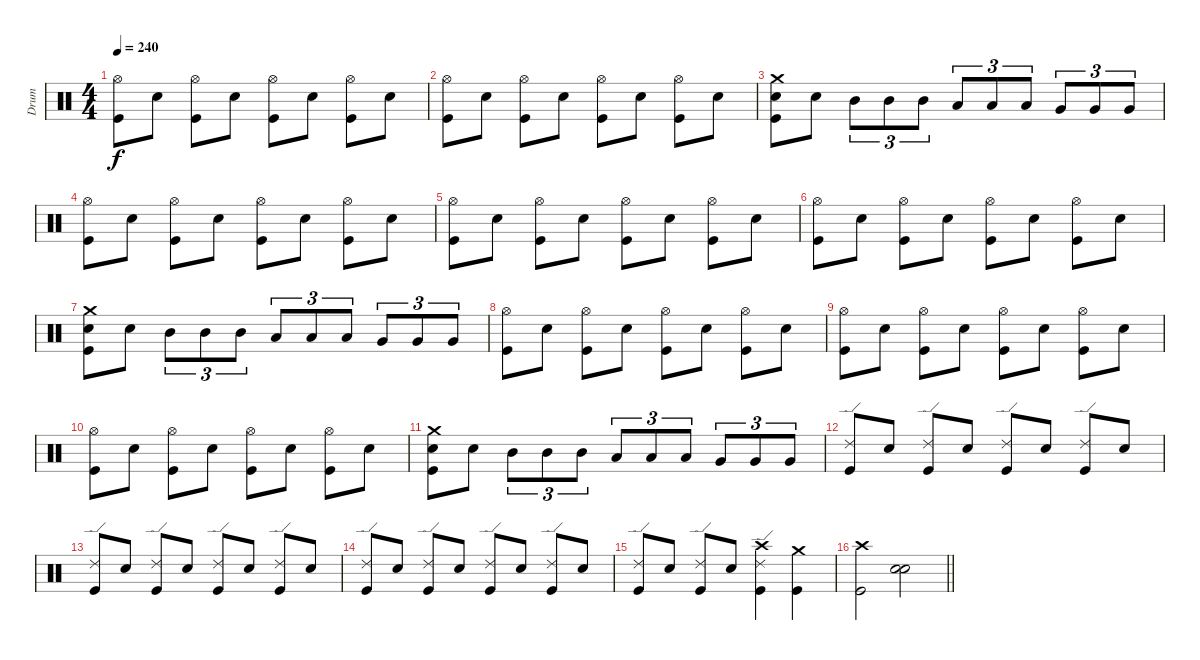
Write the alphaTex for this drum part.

\track ("Drum" "Drum") {instrument percussion}
\staff {score}
\articulation defaults
\ts (4 4)
\tempo 240
\clef neutral
\ks c
("Hi-Hat (open)" "Kick (hit)").8{dy f} "Snare (hit) 2".8 ("Hi-Hat (open)" "Kick (hit)").8 "Snare (hit) 2".8 ("Hi-Hat (open)" "Kick (hit)").8 "Snare (hit) 2".8 ("Hi-Hat (open)" "Kick (hit)").8 "Snare (hit) 2".8 |
("Hi-Hat (open)" "Kick (hit)").8 "Snare (hit) 2".8 ("Hi-Hat (open)" "Kick (hit)").8 "Snare (hit) 2".8 ("Hi-Hat (open)" "Kick (hit)").8 "Snare (hit) 2".8 ("Hi-Hat (open)" "Kick (hit)").8 "Snare (hit) 2".8 |
("Crash medium (hit)" "Snare (hit) 2" "Kick (hit)").8 "Snare (hit) 2".8 "Mid Tom (hit)".8{tu (3 2)} "Mid Tom (hit)".8{tu (3 2)} "Mid Tom (hit)".8{tu (3 2)} "Low Tom (hit)".8{tu (3 2)} "Low Tom (hit)".8{tu (3 2)} "Low Tom (hit)".8{tu (3 2)} "Very Low Tom (hit)".8{tu (3 2)} "Very Low Tom (hit)".8{tu (3 2)} "Very Low Tom (hit)".8{tu (3 2)} |
("Hi-Hat (open)" "Kick (hit)").8 "Snare (hit) 2".8 ("Hi-Hat (open)" "Kick (hit)").8 "Snare (hit) 2".8 ("Hi-Hat (open)" "Kick (hit)").8 "Snare (hit) 2".8 ("Hi-Hat (open)" "Kick (hit)").8 "Snare (hit) 2".8 |
("Hi-Hat (open)" "Kick (hit)").8 "Snare (hit) 2".8 ("Hi-Hat (open)" "Kick (hit)").8 "Snare (hit) 2".8 ("Hi-Hat (open)" "Kick (hit)").8 "Snare (hit) 2".8 ("Hi-Hat (open)" "Kick (hit)").8 "Snare (hit) 2".8 |
("Hi-Hat (open)" "Kick (hit)").8 "Snare (hit) 2".8 ("Hi-Hat (open)" "Kick (hit)").8 "Snare (hit) 2".8 ("Hi-Hat (open)" "Kick (hit)").8 "Snare (hit) 2".8 ("Hi-Hat (open)" "Kick (hit)").8 "Snare (hit) 2".8 |
("Crash medium (hit)" "Snare (hit) 2" "Kick (hit)").8 "Snare (hit) 2".8 "Mid Tom (hit)".8{tu (3 2)} "Mid Tom (hit)".8{tu (3 2)} "Mid Tom (hit)".8{tu (3 2)} "Low Tom (hit)".8{tu (3 2)} "Low Tom (hit)".8{tu (3 2)} "Low Tom (hit)".8{tu (3 2)} "Very Low Tom (hit)".8{tu (3 2)} "Very Low Tom (hit)".8{tu (3 2)} "Very Low Tom (hit)".8{tu (3 2)} |
("Hi-Hat (open)" "Kick (hit)").8 "Snare (hit) 2".8 ("Hi-Hat (open)" "Kick (hit)").8 "Snare (hit) 2".8 ("Hi-Hat (open)" "Kick (hit)").8 "Snare (hit) 2".8 ("Hi-Hat (open)" "Kick (hit)").8 "Snare (hit) 2".8 |
("Hi-Hat (open)" "Kick (hit)").8 "Snare (hit) 2".8 ("Hi-Hat (open)" "Kick (hit)").8 "Snare (hit) 2".8 ("Hi-Hat (open)" "Kick (hit)").8 "Snare (hit) 2".8 ("Hi-Hat (open)" "Kick (hit)").8 "Snare (hit) 2".8 |
("Hi-Hat (open)" "Kick (hit)").8 "Snare (hit) 2".8 ("Hi-Hat (open)" "Kick (hit)").8 "Snare (hit) 2".8 ("Hi-Hat (open)" "Kick (hit)").8 "Snare (hit) 2".8 ("Hi-Hat (open)" "Kick (hit)").8 "Snare (hit) 2".8 |
("Crash medium (hit)" "Snare (hit) 2" "Kick (hit)").8 "Snare (hit) 2".8 "Mid Tom (hit)".8{tu (3 2)} "Mid Tom (hit)".8{tu (3 2)} "Mid Tom (hit)".8{tu (3 2)} "Low Tom (hit)".8{tu (3 2)} "Low Tom (hit)".8{tu (3 2)} "Low Tom (hit)".8{tu (3 2)} "Very Low Tom (hit)".8{tu (3 2)} "Very Low Tom (hit)".8{tu (3 2)} "Very Low Tom (hit)".8{tu (3 2)} |
("Ride (edge) 2" "Kick (hit)").8 "Snare (hit) 2".8 ("Ride (edge) 2" "Kick (hit)").8 "Snare (hit) 2".8 ("Ride (edge) 2" "Kick (hit)").8 "Snare (hit) 2".8 ("Ride (edge) 2" "Kick (hit)").8 "Snare (hit) 2".8 |
("Ride (edge) 2" "Kick (hit)").8 "Snare (hit) 2".8 ("Ride (edge) 2" "Kick (hit)").8 "Snare (hit) 2".8 ("Ride (edge) 2" "Kick (hit)").8 "Snare (hit) 2".8 ("Ride (edge) 2" "Kick (hit)").8 "Snare (hit) 2".8 |
("Ride (edge) 2" "Kick (hit)").8 "Snare (hit) 2".8 ("Ride (edge) 2" "Kick (hit)").8 "Snare (hit) 2".8 ("Ride (edge) 2" "Kick (hit)").8 "Snare (hit) 2".8 ("Ride (edge) 2" "Kick (hit)").8 "Snare (hit) 2".8 |
("Ride (edge) 2" "Kick (hit)").8 "Snare (hit) 2".8 ("Ride (edge) 2" "Kick (hit)").8 "Snare (hit) 2".8 ("Crash high (hit)" "Ride (edge) 2" "Kick (hit)").4 ("Crash medium (hit)" "Kick (hit)").4 |
\barLineRight lightlight
("Crash high (hit)" "Kick (hit)").2 ("Snare (hit) 2" "Snare (hit) 2").2
